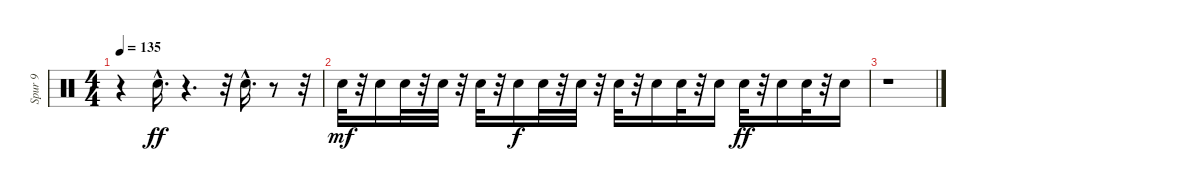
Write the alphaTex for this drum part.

\track ("Spur 9" "Spur 9") {instrument percussion}
\staff {score}
\articulation defaults
\ts (4 4)
\tempo 135
\clef neutral
\ks c
r.4{dy ff} "Electric Snare (hit)"{hac}.16{d} r.4{d} r.32 "Electric Snare (hit)"{hac}.16{d} r.8 r.32 |
"Electric Snare (hit)".32{dy mf} r.32 "Electric Snare (hit)".16 "Electric Snare (hit)".32 r.32 "Electric Snare (hit)".32 r.32 "Electric Snare (hit)".32 r.32 "Electric Snare (hit)".16{dy f} "Electric Snare (hit)".32 r.32 "Electric Snare (hit)".32 r.32 "Electric Snare (hit)".32 r.32 "Electric Snare (hit)".16 "Electric Snare (hit)".32 r.32 "Electric Snare (hit)".16 "Electric Snare (hit)".32{dy ff} r.32 "Electric Snare (hit)".16 "Electric Snare (hit)".32 r.32 "Electric Snare (hit)".16 |
r.1
